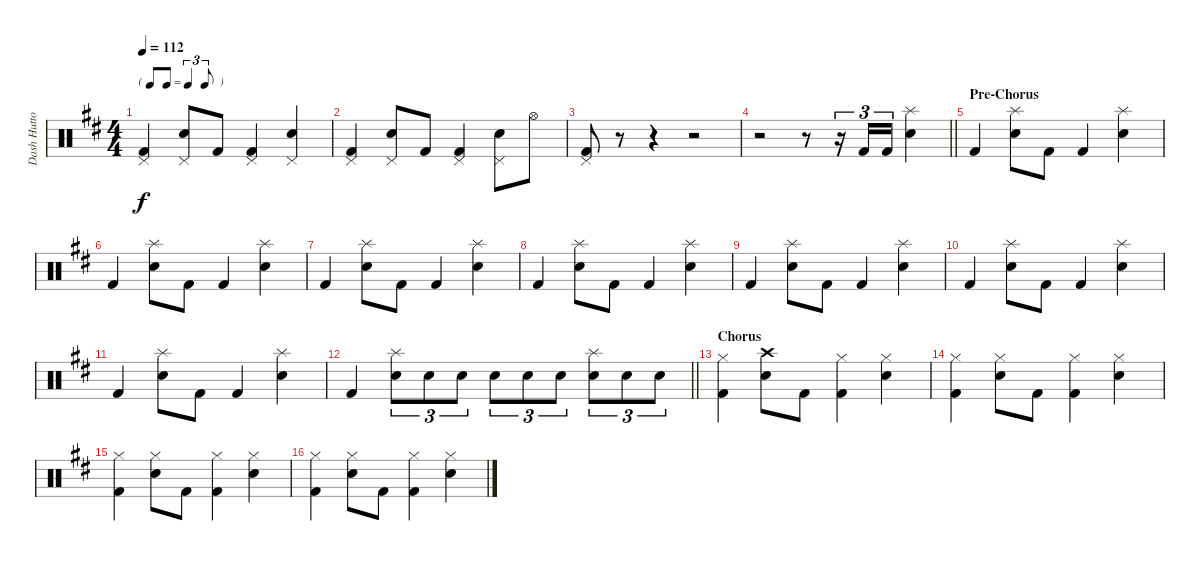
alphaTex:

\track ("Dash Hutton" "Dash Hutto") {instrument percussion}
\staff {score}
\articulation defaults
\ts (4 4)
\tf triplet8th
\tempo 112
\clef neutral
\ks d
("Pedal Hi-Hat (hit)" "Kick (hit) 2").4{dy f} ("Pedal Hi-Hat (hit)" "Snare (hit) 2").8 "Kick (hit) 2".8 ("Pedal Hi-Hat (hit)" "Kick (hit) 2").4 ("Pedal Hi-Hat (hit)" "Snare (hit) 2").4 |
("Pedal Hi-Hat (hit)" "Kick (hit) 2").4 ("Pedal Hi-Hat (hit)" "Snare (hit) 2").8 "Kick (hit) 2".8 ("Pedal Hi-Hat (hit)" "Kick (hit) 2").4 ("Pedal Hi-Hat (hit)" "Snare (hit) 2").8 "Hi-Hat (open)".8 |
("Pedal Hi-Hat (hit)" "Kick (hit) 2").8 r.8 r.4 r.2 |
\barLineRight lightlight
r.2 r.8 r.16{tu (3 2)} "Kick (hit) 2".16{tu (3 2)} "Kick (hit) 2".16{tu (3 2)} ("Splash (hit)" "Snare (hit) 2").4 |
\section ("" "Pre-Chorus")
"Kick (hit) 2".4 ("Splash (hit)" "Snare (hit) 2").8 "Kick (hit) 2".8 "Kick (hit) 2".4 ("Splash (hit)" "Snare (hit) 2").4 |
"Kick (hit) 2".4 ("Splash (hit)" "Snare (hit) 2").8 "Kick (hit) 2".8 "Kick (hit) 2".4 ("Splash (hit)" "Snare (hit) 2").4 |
"Kick (hit) 2".4 ("Splash (hit)" "Snare (hit) 2").8 "Kick (hit) 2".8 "Kick (hit) 2".4 ("Splash (hit)" "Snare (hit) 2").4 |
"Kick (hit) 2".4 ("Splash (hit)" "Snare (hit) 2").8 "Kick (hit) 2".8 "Kick (hit) 2".4 ("Splash (hit)" "Snare (hit) 2").4 |
"Kick (hit) 2".4 ("Splash (hit)" "Snare (hit) 2").8 "Kick (hit) 2".8 "Kick (hit) 2".4 ("Splash (hit)" "Snare (hit) 2").4 |
"Kick (hit) 2".4 ("Splash (hit)" "Snare (hit) 2").8 "Kick (hit) 2".8 "Kick (hit) 2".4 ("Splash (hit)" "Snare (hit) 2").4 |
"Kick (hit) 2".4 ("Splash (hit)" "Snare (hit) 2").8 "Kick (hit) 2".8 "Kick (hit) 2".4 ("Splash (hit)" "Snare (hit) 2").4 |
\barLineRight lightlight "Kick (hit) 2".4
("Splash (hit)" "Snare (hit) 2").8{tu (3 2)} "Snare (hit) 2".8{tu (3 2)} "Snare (hit) 2".8{tu (3 2)} "Snare (hit) 2".8{tu (3 2)} "Snare (hit) 2".8{tu (3 2)} "Snare (hit) 2".8{tu (3 2)} ("Splash (hit)" "Snare (hit) 2").8{tu (3 2)} "Snare (hit) 2".8{tu (3 2)} "Snare (hit) 2".8{tu (3 2)} |
\section ("" "Chorus")
("Hi-Hat (closed)" "Kick (hit) 2").4 ("Crash high (hit)" "Snare (hit) 2").8 "Kick (hit) 2".8 ("Hi-Hat (closed)" "Kick (hit) 2").4 ("Hi-Hat (closed)" "Snare (hit) 2").4 |
("Hi-Hat (closed)" "Kick (hit) 2").4 ("Hi-Hat (closed)" "Snare (hit) 2").8 "Kick (hit) 2".8 ("Hi-Hat (closed)" "Kick (hit) 2").4 ("Hi-Hat (closed)" "Snare (hit) 2").4 |
("Hi-Hat (closed)" "Kick (hit) 2").4 ("Hi-Hat (closed)" "Snare (hit) 2").8 "Kick (hit) 2".8 ("Hi-Hat (closed)" "Kick (hit) 2").4 ("Hi-Hat (closed)" "Snare (hit) 2").4 |
("Hi-Hat (closed)" "Kick (hit) 2").4 ("Hi-Hat (closed)" "Snare (hit) 2").8 "Kick (hit) 2".8 ("Hi-Hat (closed)" "Kick (hit) 2").4 ("Hi-Hat (closed)" "Snare (hit) 2").4
